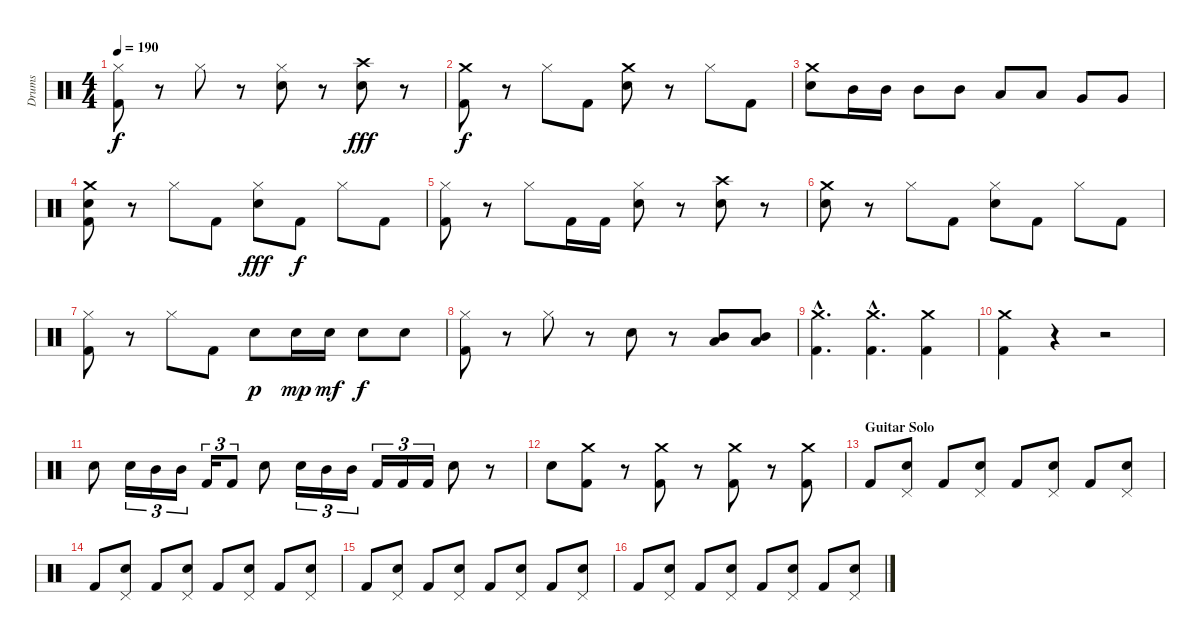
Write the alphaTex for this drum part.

\track ("Drums" "Drums") {instrument percussion}
\staff {score}
\articulation defaults
\ts (4 4)
\tempo 190
\clef neutral
\ks c
("Kick (hit) 2" "Hi-Hat (closed)").8{dy f} r.8 "Hi-Hat (closed)".8 r.8 ("Snare (hit) 2" "Hi-Hat (closed)").8 r.8 ("Snare (hit) 2" "Crash high (hit)").8{dy fff} r.8 |
("Kick (hit) 2" "Crash medium (hit)").8{dy f} r.8 "Hi-Hat (closed)".8 "Kick (hit) 2".8 ("Snare (hit) 2" "Crash medium (hit)").8 r.8 "Hi-Hat (closed)".8 "Kick (hit) 2".8 |
("Snare (hit) 2" "Crash medium (hit)").8 "Mid Tom (hit)".16 "Mid Tom (hit)".16 "Mid Tom (hit)".8 "Mid Tom (hit)".8 "Low Tom (hit)".8 "Low Tom (hit)".8 "Very Low Tom (hit)".8 "Very Low Tom (hit)".8 |
("Kick (hit) 2" "Snare (hit) 2" "Crash medium (hit)").8 r.8 "Hi-Hat (closed)".8 "Kick (hit) 2".8 ("Snare (hit) 2" "Hi-Hat (closed)").8{dy fff} "Kick (hit) 2".8{dy f} "Hi-Hat (closed)".8 "Kick (hit) 2".8 |
("Kick (hit) 2" "Hi-Hat (closed)").8 r.8 "Hi-Hat (closed)".8 "Kick (hit) 2".16 "Kick (hit) 2".16 ("Snare (hit) 2" "Hi-Hat (closed)").8 r.8 ("Snare (hit) 2" "Crash high (hit)").8 r.8 |
("Snare (hit) 2" "Crash medium (hit)").8 r.8 "Hi-Hat (closed)".8 "Kick (hit) 2".8 ("Snare (hit) 2" "Hi-Hat (closed)").8 "Kick (hit) 2".8 "Hi-Hat (closed)".8 "Kick (hit) 2".8 |
("Kick (hit) 2" "Hi-Hat (closed)").8 r.8 "Hi-Hat (closed)".8 "Kick (hit) 2".8 "Snare (hit) 2".8{dy p} "Snare (hit) 2".16{dy mp} "Snare (hit) 2".16{dy mf} "Snare (hit) 2".8{dy f} "Snare (hit) 2".8 |
("Kick (hit) 2" "Hi-Hat (closed)").8 r.8 "Hi-Hat (closed)".8 r.8 "Snare (hit) 2".8 r.8 ("Low Tom (hit)" "Mid Tom (hit)").8{bu 120} ("Low Tom (hit)" "Mid Tom (hit)").8{bd 120} |
("Kick (hit) 2"{hac} "Crash medium (hit)"{hac}).4{d} ("Kick (hit) 2"{hac} "Crash medium (hit)"{hac}).4{d} ("Kick (hit) 2" "Crash medium (hit)").4 |
("Kick (hit) 2" "Crash medium (hit)").4 r.4 r.2 |
"Snare (hit) 2".8 "Snare (hit) 2".16{tu (3 2)} "Mid Tom (hit)".16{tu (3 2)} "Mid Tom (hit)".16{tu (3 2)} "Kick (hit) 2".16{tu (3 2)} "Kick (hit) 2".8{tu (3 2)} "Snare (hit) 2".8 "Snare (hit) 2".16{tu (3 2)} "Mid Tom (hit)".16{tu (3 2)} "Mid Tom (hit)".16{tu (3 2)} "Kick (hit) 2".16{tu (3 2)} "Kick (hit) 2".16{tu (3 2)} "Kick (hit) 2".16{tu (3 2)} "Snare (hit) 2".8 r.8 |
"Snare (hit) 2".8 ("Kick (hit) 2" "Crash medium (hit)").8 r.8 ("Kick (hit) 2" "Crash medium (hit)").8 r.8 ("Kick (hit) 2" "Crash medium (hit)").8 r.8 ("Kick (hit) 2" "Crash medium (hit)").8 |
\section ("" "Guitar Solo")
"Kick (hit) 2".8 ("Snare (hit) 2" "Pedal Hi-Hat (hit)").8 "Kick (hit) 2".8 ("Snare (hit) 2" "Pedal Hi-Hat (hit)").8 "Kick (hit) 2".8 ("Snare (hit) 2" "Pedal Hi-Hat (hit)").8 "Kick (hit) 2".8 ("Snare (hit) 2" "Pedal Hi-Hat (hit)").8 |
"Kick (hit) 2".8 ("Snare (hit) 2" "Pedal Hi-Hat (hit)").8 "Kick (hit) 2".8 ("Snare (hit) 2" "Pedal Hi-Hat (hit)").8 "Kick (hit) 2".8 ("Snare (hit) 2" "Pedal Hi-Hat (hit)").8 "Kick (hit) 2".8 ("Snare (hit) 2" "Pedal Hi-Hat (hit)").8 |
"Kick (hit) 2".8 ("Snare (hit) 2" "Pedal Hi-Hat (hit)").8 "Kick (hit) 2".8 ("Snare (hit) 2" "Pedal Hi-Hat (hit)").8 "Kick (hit) 2".8 ("Snare (hit) 2" "Pedal Hi-Hat (hit)").8 "Kick (hit) 2".8 ("Snare (hit) 2" "Pedal Hi-Hat (hit)").8 |
"Kick (hit) 2".8 ("Snare (hit) 2" "Pedal Hi-Hat (hit)").8 "Kick (hit) 2".8 ("Snare (hit) 2" "Pedal Hi-Hat (hit)").8 "Kick (hit) 2".8 ("Snare (hit) 2" "Pedal Hi-Hat (hit)").8 "Kick (hit) 2".8 ("Snare (hit) 2" "Pedal Hi-Hat (hit)").8
